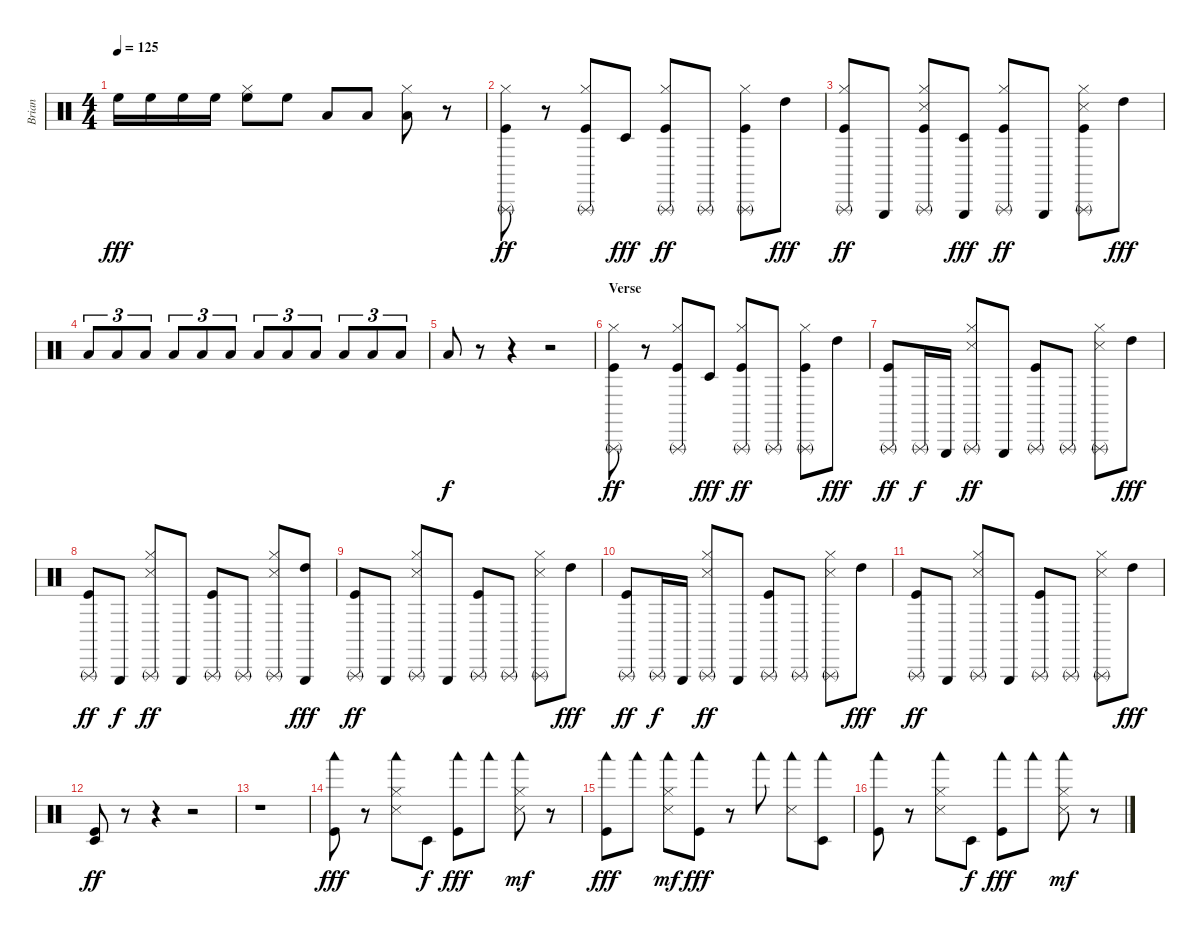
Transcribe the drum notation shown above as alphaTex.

\track ("Brian" "Brian") {instrument percussion}
\staff {score}
\articulation defaults
\ts (4 4)
\tempo 125
\clef neutral
\ks c "High Floor Tom (hit)".16{dy fff} "High Floor Tom (hit)".16 "High Floor Tom (hit)".16 "High Floor Tom (hit)".16
("Hi-Hat (closed)" "High Floor Tom (hit)").8 "High Floor Tom (hit)".8 "Low Floor Tom (hit)".8 "Low Floor Tom (hit)".8 ("Hi-Hat (closed)" "Low Floor Tom (hit)").8 r.8 |
("Triangle (rnute)" "Hi-Hat (closed)" "Kick (hit)").8{dy ff} r.8 ("Triangle (rnute)" "Hi-Hat (closed)" "Kick (hit)").8 "Timbale low (hit)".8{dy fff} ("Triangle (rnute)" "Hi-Hat (closed)" "Kick (hit)").8{dy ff} "Triangle (rnute)".8 ("Triangle (rnute)" "Hi-Hat (closed)" "Kick (hit)").8 "High Tom (hit)".8{dy fff} |
("Triangle (rnute)" "Hi-Hat (closed)" "Kick (hit)").8{dy ff} "Triangle (hit)".8 ("Triangle (rnute)" "Hi-Hat (closed)" "Snare (side stick) 3" "Kick (hit)").8 ("Triangle (hit)" "Timbale low (hit)").8{dy fff} ("Triangle (rnute)" "Hi-Hat (closed)" "Kick (hit)").8{dy ff} "Triangle (hit)".8 ("Triangle (rnute)" "Hi-Hat (closed)" "Snare (side stick) 3" "Kick (hit)").8 "High Tom (hit)".8{dy fff} |
"Low Floor Tom (hit)".8{tu (3 2)} "Low Floor Tom (hit)".8{tu (3 2)} "Low Floor Tom (hit)".8{tu (3 2)} "Low Floor Tom (hit)".8{tu (3 2)} "Low Floor Tom (hit)".8{tu (3 2)} "Low Floor Tom (hit)".8{tu (3 2)} "Low Floor Tom (hit)".8{tu (3 2)} "Low Floor Tom (hit)".8{tu (3 2)} "Low Floor Tom (hit)".8{tu (3 2)} "Low Floor Tom (hit)".8{tu (3 2)} "Low Floor Tom (hit)".8{tu (3 2)} "Low Floor Tom (hit)".8{tu (3 2)} |
"Low Floor Tom (hit)".8{dy f} r.8 r.4 r.2 |
\section ("" "Verse")
("Triangle (rnute)" "Hi-Hat (closed)" "Kick (hit)").8{dy ff} r.8 ("Triangle (rnute)" "Hi-Hat (closed)" "Kick (hit)").8 "Timbale low (hit)".8{dy fff} ("Triangle (rnute)" "Hi-Hat (closed)" "Kick (hit)").8{dy ff} "Triangle (rnute)".8 ("Triangle (rnute)" "Hi-Hat (closed)" "Kick (hit)").8 "High Tom (hit)".8{dy fff} |
("Triangle (rnute)" "Kick (hit)").8{dy ff} "Triangle (rnute)".16{dy f} "Triangle (hit)".16 ("Triangle (rnute)" "Hi-Hat (closed)" "Snare (side stick) 3").8{dy ff} "Triangle (hit)".8 ("Triangle (rnute)" "Kick (hit)").8 "Triangle (rnute)".8 ("Triangle (rnute)" "Hi-Hat (closed)" "Snare (side stick) 3").8 "High Tom (hit)".8{dy fff} |
("Triangle (rnute)" "Kick (hit)").8{dy ff} "Triangle (hit)".8{dy f} ("Triangle (rnute)" "Hi-Hat (closed)" "Snare (side stick) 3").8{dy ff} "Triangle (hit)".8 ("Triangle (rnute)" "Kick (hit)").8 "Triangle (rnute)".8 ("Triangle (rnute)" "Hi-Hat (closed)" "Snare (side stick) 3").8 ("Triangle (hit)" "High Tom (hit)").8{dy fff} |
("Triangle (rnute)" "Kick (hit)").8{dy ff} "Triangle (hit)".8 ("Triangle (rnute)" "Hi-Hat (closed)" "Snare (side stick) 3").8 "Triangle (hit)".8 ("Triangle (rnute)" "Kick (hit)").8 "Triangle (rnute)".8 ("Triangle (rnute)" "Hi-Hat (closed)" "Snare (side stick) 3").8 "High Tom (hit)".8{dy fff} |
("Triangle (rnute)" "Kick (hit)").8{dy ff} "Triangle (rnute)".16{dy f} "Triangle (hit)".16 ("Triangle (rnute)" "Hi-Hat (closed)" "Snare (side stick) 3").8{dy ff} "Triangle (hit)".8 ("Triangle (rnute)" "Kick (hit)").8 "Triangle (rnute)".8 ("Triangle (rnute)" "Hi-Hat (closed)" "Snare (side stick) 3").8 "High Tom (hit)".8{dy fff} |
("Triangle (rnute)" "Kick (hit)").8{dy ff} "Triangle (hit)".8 ("Triangle (rnute)" "Hi-Hat (closed)" "Snare (side stick) 3").8 "Triangle (hit)".8 ("Triangle (rnute)" "Kick (hit)").8 "Triangle (rnute)".8 ("Triangle (rnute)" "Hi-Hat (closed)" "Snare (side stick) 3").8 "High Tom (hit)".8{dy fff} |
("Timbale low (hit)" "Kick (hit)").8{dy ff} r.8 r.4 r.2 |
r.1 |
("Woodblock low (hit)" "Kick (hit)").8{dy fff} r.8 ("Woodblock low (hit)" "Hi-Hat (closed)" "Snare (side stick) 3").8 "Timbale low (hit)".8{dy f} ("Woodblock low (hit)" "Kick (hit)").8{dy fff} "Woodblock low (hit)".8 ("Woodblock low (hit)" "Hi-Hat (closed)" "Snare (side stick) 3").8{dy mf} r.8 |
("Woodblock low (hit)" "Kick (hit)").8{dy fff} "Woodblock low (hit)".8 ("Woodblock low (hit)" "Hi-Hat (closed)" "Snare (side stick) 3").8{dy mf} ("Woodblock low (hit)" "Kick (hit)").8{dy fff} r.8 "Woodblock low (hit)".8 ("Woodblock low (hit)" "Snare (side stick) 3").8 ("Woodblock low (hit)" "Timbale low (hit)").8 |
("Woodblock low (hit)" "Kick (hit)").8 r.8 ("Woodblock low (hit)" "Hi-Hat (closed)" "Snare (side stick) 3").8 "Timbale low (hit)".8{dy f} ("Woodblock low (hit)" "Kick (hit)").8{dy fff} "Woodblock low (hit)".8 ("Woodblock low (hit)" "Hi-Hat (closed)" "Snare (side stick) 3").8{dy mf} r.8
